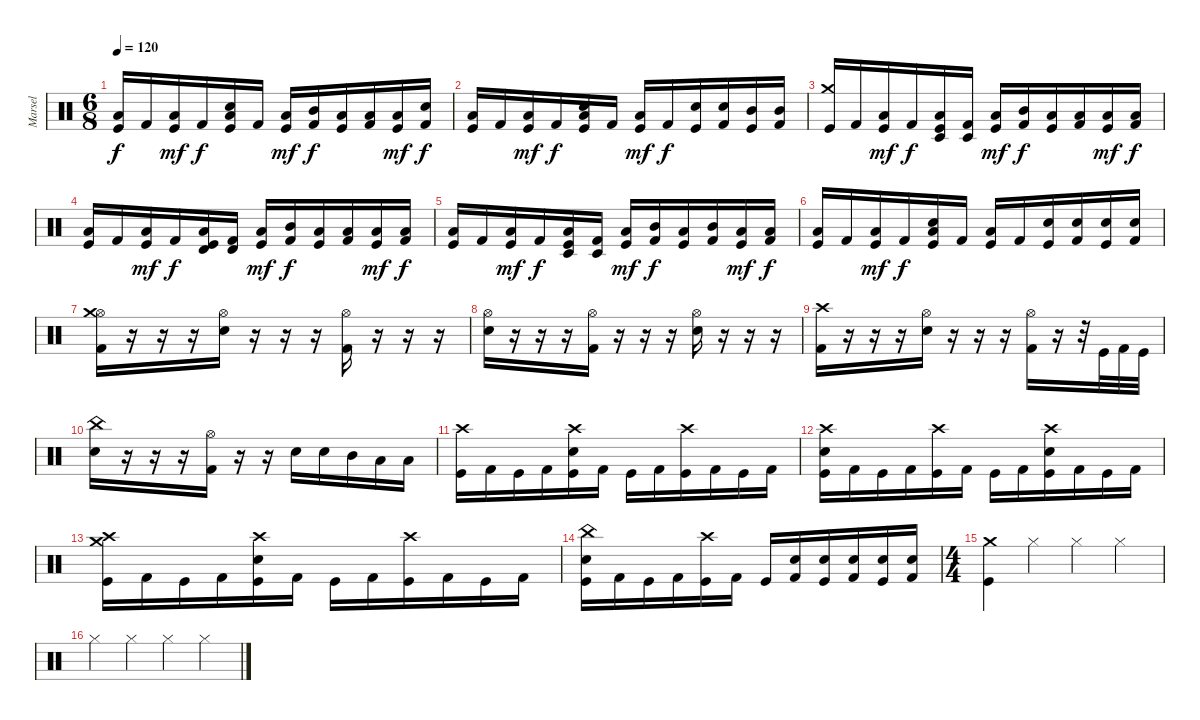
\track ("Marsel" "Marsel") {instrument percussion}
\staff {score}
\articulation defaults
\ts (6 8)
\tempo 120
\clef neutral
\ks c
("Low Floor Tom (hit)" "Kick (hit)").16{dy f} "Kick (hit) 2".16 ("Low Floor Tom (hit)" "Kick (hit)").16{dy mf} "Kick (hit) 2".16{dy f} ("Snare (hit) 2" "Low Floor Tom (hit)" "Kick (hit)").16 "Kick (hit) 2".16 ("Low Floor Tom (hit)" "Kick (hit)").16{dy mf} ("Mid Tom (hit)" "Kick (hit) 2").16{dy f} ("Low Floor Tom (hit)" "Kick (hit)").16 ("Low Tom (hit)" "Kick (hit) 2").16 ("Low Floor Tom (hit)" "Kick (hit)").16{dy mf} ("Snare (hit) 2" "Kick (hit) 2").16{dy f} |
("Low Tom (hit)" "Kick (hit)").16 "Kick (hit) 2".16 ("Low Tom (hit)" "Kick (hit)").16{dy mf} "Kick (hit) 2".16{dy f} ("Snare (hit) 2" "Low Tom (hit)" "Kick (hit)").16 "Kick (hit) 2".16 ("Low Tom (hit)" "Kick (hit)").16{dy mf} "Kick (hit) 2".16{dy f} ("Snare (hit) 2" "Kick (hit)").16 ("Snare (hit) 2" "Kick (hit) 2").16 ("Mid Tom (hit)" "Kick (hit)").16 ("Mid Tom (hit)" "Kick (hit) 2").16 |
("Crash medium (hit)" "Kick (hit)").16 "Kick (hit) 2".16 ("Low Floor Tom (hit)" "Kick (hit)").16{dy mf} "Kick (hit) 2".16{dy f} ("Timbale low (hit)" "Low Floor Tom (hit)" "Kick (hit)").16 ("Timbale low (hit)" "Kick (hit) 2").16 ("Low Floor Tom (hit)" "Kick (hit)").16{dy mf} ("Mid Tom (hit)" "Kick (hit) 2").16{dy f} ("Low Floor Tom (hit)" "Kick (hit)").16 ("Low Tom (hit)" "Kick (hit) 2").16 ("Low Floor Tom (hit)" "Kick (hit)").16{dy mf} ("Low Tom (hit)" "Kick (hit) 2").16{dy f} |
("Low Floor Tom (hit)" "Kick (hit)").16 "Kick (hit) 2".16 ("Low Floor Tom (hit)" "Kick (hit)").16{dy mf} "Kick (hit) 2".16{dy f} ("Timbale high (hit)" "Low Floor Tom (hit)" "Kick (hit)").16 ("Timbale high (hit)" "Kick (hit) 2").16 ("Low Floor Tom (hit)" "Kick (hit)").16{dy mf} ("Mid Tom (hit)" "Kick (hit) 2").16{dy f} ("Low Floor Tom (hit)" "Kick (hit)").16 ("Low Tom (hit)" "Kick (hit) 2").16 ("Low Floor Tom (hit)" "Kick (hit)").16{dy mf} ("Low Tom (hit)" "Kick (hit) 2").16{dy f} |
("Low Floor Tom (hit)" "Kick (hit)").16 "Kick (hit) 2".16 ("Low Floor Tom (hit)" "Kick (hit)").16{dy mf} "Kick (hit) 2".16{dy f} ("Timbale low (hit)" "Low Floor Tom (hit)" "Kick (hit)").16 ("Timbale low (hit)" "Kick (hit) 2").16 ("Low Floor Tom (hit)" "Kick (hit)").16{dy mf} ("Mid Tom (hit)" "Kick (hit) 2").16{dy f} ("Low Floor Tom (hit)" "Kick (hit)").16 ("Mid Tom (hit)" "Kick (hit) 2").16 ("Low Floor Tom (hit)" "Kick (hit)").16{dy mf} ("Low Tom (hit)" "Kick (hit) 2").16{dy f} |
("Low Floor Tom (hit)" "Kick (hit)").16 "Kick (hit) 2".16 ("Low Floor Tom (hit)" "Kick (hit)").16{dy mf} "Kick (hit) 2".16{dy f} ("Snare (hit) 2" "Low Floor Tom (hit)" "Kick (hit)").16 "Kick (hit) 2".16 ("Low Floor Tom (hit)" "Kick (hit)").16 "Kick (hit) 2".16 ("Snare (hit) 2" "Kick (hit)").16 ("Snare (hit) 2" "Kick (hit) 2").16 ("Snare (hit) 2" "Kick (hit)").16 ("Snare (hit) 2" "Kick (hit) 2").16 |
("Hi-Hat (open)" "Crash medium (hit)" "Kick (hit) 2").16 r.16 r.16 r.16 ("Hi-Hat (open)" "Snare (hit) 2").16 r.16 r.16 r.16 ("Hi-Hat (open)" "Kick (hit) 2").16 r.16 r.16 r.16 |
("Hi-Hat (open)" "Snare (hit) 2").16 r.16 r.16 r.16 ("Hi-Hat (open)" "Kick (hit) 2").16 r.16 r.16 r.16 ("Hi-Hat (open)" "Snare (hit) 2").16 r.16 r.16 r.16 |
("Crash high (hit)" "Kick (hit) 2").16 r.16 r.16 r.16 ("Hi-Hat (open)" "Snare (hit) 2").16 r.16 r.16 r.16 ("Hi-Hat (open)" "Kick (hit) 2").16 r.16 r.32 "Kick (hit)".32 "Kick (hit) 2".32 "Kick (hit)".32 |
("China (hit)" "Snare (hit) 2").16 r.16 r.16 r.16 ("Hi-Hat (open)" "Kick (hit) 2").16 r.16 r.16 "Snare (hit) 2".16 "Snare (hit) 2".16 "Mid Tom (hit)".16 "Low Tom (hit)".16 "Low Tom (hit)".16 |
("Crash high (hit)" "Kick (hit)").16 "Kick (hit) 2".16 "Kick (hit)".16 "Kick (hit) 2".16 ("Crash high (hit)" "Snare (hit) 2" "Kick (hit)").16 "Kick (hit) 2".16 "Kick (hit)".16 "Kick (hit) 2".16 ("Crash high (hit)" "Kick (hit)").16 "Kick (hit) 2".16 "Kick (hit)".16 "Kick (hit) 2".16 |
("Crash high (hit)" "Snare (hit) 2" "Kick (hit)").16 "Kick (hit) 2".16 "Kick (hit)".16 "Kick (hit) 2".16 ("Crash high (hit)" "Kick (hit)").16 "Kick (hit) 2".16 "Kick (hit)".16 "Kick (hit) 2".16 ("Crash high (hit)" "Snare (hit) 2" "Kick (hit)").16 "Kick (hit) 2".16 "Kick (hit)".16 "Kick (hit) 2".16 |
("Crash high (hit)" "Crash medium (hit)" "Kick (hit)").16 "Kick (hit) 2".16 "Kick (hit)".16 "Kick (hit) 2".16 ("Crash high (hit)" "Snare (hit) 2" "Kick (hit)").16 "Kick (hit) 2".16 "Kick (hit)".16 "Kick (hit) 2".16 ("Crash high (hit)" "Kick (hit)").16 "Kick (hit) 2".16 "Kick (hit)".16 "Kick (hit) 2".16 |
("China (hit)" "Snare (hit) 2" "Kick (hit)").16 "Kick (hit) 2".16 "Kick (hit)".16 "Kick (hit) 2".16 ("Crash high (hit)" "Kick (hit)").16 "Kick (hit) 2".16 "Kick (hit)".16 ("Snare (hit) 2" "Kick (hit) 2").16 ("Snare (hit) 2" "Kick (hit)").16 ("Snare (hit) 2" "Kick (hit) 2").16 ("Snare (hit) 2" "Kick (hit)").16 ("Snare (hit) 2" "Kick (hit) 2").16 |
\ts (4 4)
("Crash medium (hit)" "Kick (hit)").4 "Hi-Hat (closed)".4 "Hi-Hat (closed)".4 "Hi-Hat (closed)".4 |
"Hi-Hat (closed)".4 "Hi-Hat (closed)".4 "Hi-Hat (closed)".4 "Hi-Hat (closed)".4
